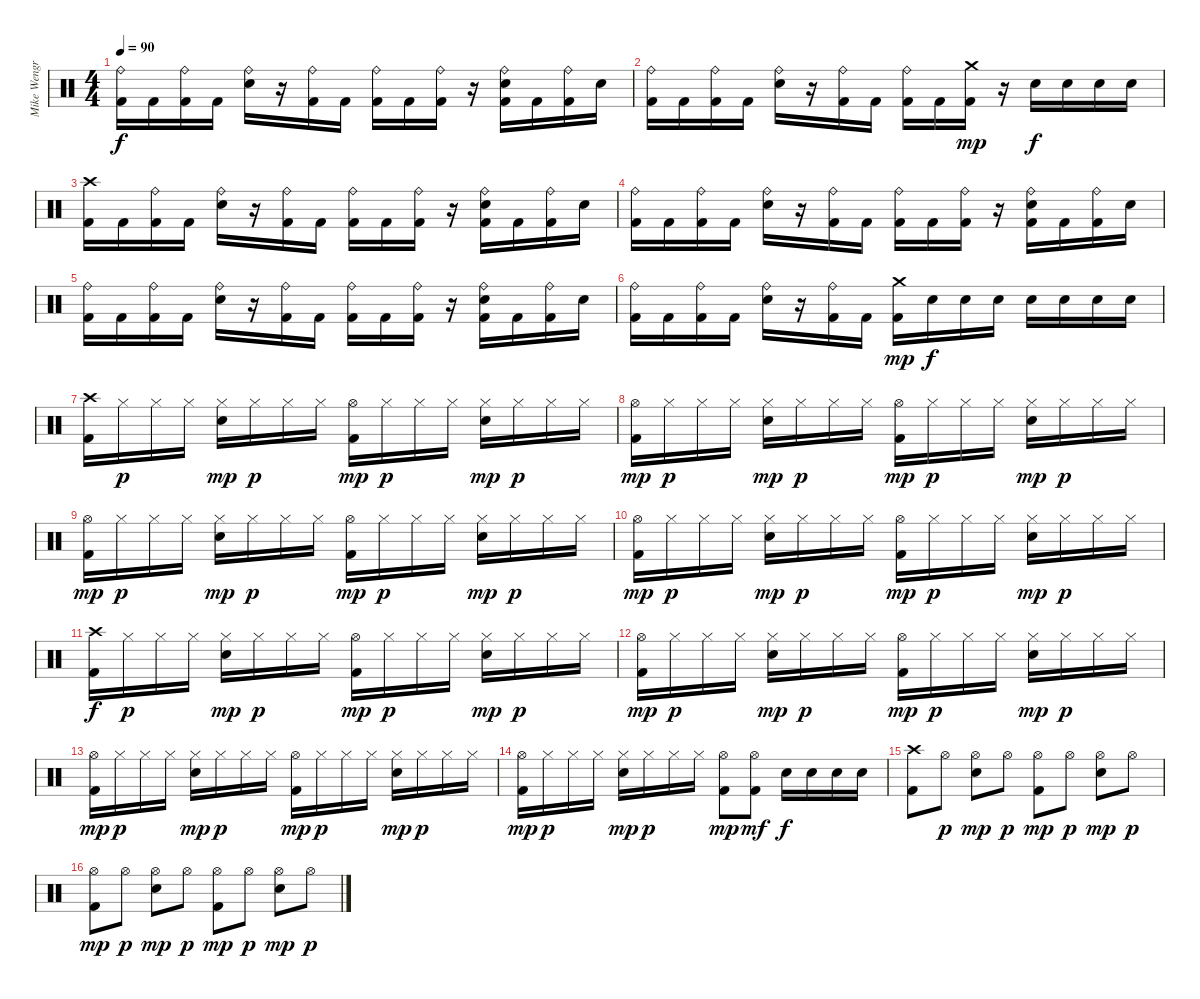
\track ("Mike Wengren - Drums" "Mike Wengr") {instrument percussion}
\staff {score}
\articulation defaults
\ts (4 4)
\tempo 90
\clef neutral
\ks c
("Ride (bell)" "Kick (hit) 2").16{dy f} "Kick (hit) 2".16 ("Ride (bell)" "Kick (hit) 2").16 "Kick (hit) 2".16 ("Ride (bell)" "Electric Snare (hit)").16 r.16 ("Ride (bell)" "Kick (hit) 2").16 "Kick (hit) 2".16 ("Ride (bell)" "Kick (hit) 2").16 "Kick (hit) 2".16 ("Ride (bell)" "Kick (hit) 2").16 r.16 ("Ride (bell)" "Electric Snare (hit)" "Kick (hit) 2").16 "Kick (hit) 2".16 ("Ride (bell)" "Kick (hit) 2").16 "Electric Snare (hit)".16 |
("Ride (bell)" "Kick (hit) 2").16 "Kick (hit) 2".16 ("Ride (bell)" "Kick (hit) 2").16 "Kick (hit) 2".16 ("Ride (bell)" "Electric Snare (hit)").16 r.16 ("Ride (bell)" "Kick (hit) 2").16 "Kick (hit) 2".16 ("Ride (bell)" "Kick (hit) 2").16 "Kick (hit) 2".16 ("Crash medium (hit)" "Kick (hit) 2").16{dy mp} r.16 "Electric Snare (hit)".16{dy f} "Electric Snare (hit)".16 "Electric Snare (hit)".16 "Electric Snare (hit)".16 |
("Crash high (hit)" "Kick (hit) 2").16 "Kick (hit) 2".16 ("Ride (bell)" "Kick (hit) 2").16 "Kick (hit) 2".16 ("Ride (bell)" "Electric Snare (hit)").16 r.16 ("Ride (bell)" "Kick (hit) 2").16 "Kick (hit) 2".16 ("Ride (bell)" "Kick (hit) 2").16 "Kick (hit) 2".16 ("Ride (bell)" "Kick (hit) 2").16 r.16 ("Ride (bell)" "Electric Snare (hit)" "Kick (hit) 2").16 "Kick (hit) 2".16 ("Ride (bell)" "Kick (hit) 2").16 "Electric Snare (hit)".16 |
("Ride (bell)" "Kick (hit) 2").16 "Kick (hit) 2".16 ("Ride (bell)" "Kick (hit) 2").16 "Kick (hit) 2".16 ("Ride (bell)" "Electric Snare (hit)").16 r.16 ("Ride (bell)" "Kick (hit) 2").16 "Kick (hit) 2".16 ("Ride (bell)" "Kick (hit) 2").16 "Kick (hit) 2".16 ("Ride (bell)" "Kick (hit) 2").16 r.16 ("Ride (bell)" "Electric Snare (hit)" "Kick (hit) 2").16 "Kick (hit) 2".16 ("Ride (bell)" "Kick (hit) 2").16 "Electric Snare (hit)".16 |
("Ride (bell)" "Kick (hit) 2").16 "Kick (hit) 2".16 ("Ride (bell)" "Kick (hit) 2").16 "Kick (hit) 2".16 ("Ride (bell)" "Electric Snare (hit)").16 r.16 ("Ride (bell)" "Kick (hit) 2").16 "Kick (hit) 2".16 ("Ride (bell)" "Kick (hit) 2").16 "Kick (hit) 2".16 ("Ride (bell)" "Kick (hit) 2").16 r.16 ("Ride (bell)" "Electric Snare (hit)" "Kick (hit) 2").16 "Kick (hit) 2".16 ("Ride (bell)" "Kick (hit) 2").16 "Electric Snare (hit)".16 |
("Ride (bell)" "Kick (hit) 2").16 "Kick (hit) 2".16 ("Ride (bell)" "Kick (hit) 2").16 "Kick (hit) 2".16 ("Ride (bell)" "Electric Snare (hit)").16 r.16 ("Ride (bell)" "Kick (hit) 2").16 "Kick (hit) 2".16 ("Crash medium (hit)" "Kick (hit) 2").16{dy mp} "Electric Snare (hit)".16{dy f} "Electric Snare (hit)".16 "Electric Snare (hit)".16 "Electric Snare (hit)".16 "Electric Snare (hit)".16 "Electric Snare (hit)".16 "Electric Snare (hit)".16 |
("Crash high (hit)" "Kick (hit) 2").16 "Hi-Hat (closed)".16{dy p} "Hi-Hat (closed)".16 "Hi-Hat (closed)".16 ("Hi-Hat (closed)" "Electric Snare (hit)").16{dy mp} "Hi-Hat (closed)".16{dy p} "Hi-Hat (closed)".16 "Hi-Hat (closed)".16 ("Hi-Hat (open)" "Kick (hit) 2").16{dy mp} "Hi-Hat (closed)".16{dy p} "Hi-Hat (closed)".16 "Hi-Hat (closed)".16 ("Hi-Hat (closed)" "Electric Snare (hit)").16{dy mp} "Hi-Hat (closed)".16{dy p} "Hi-Hat (closed)".16 "Hi-Hat (closed)".16 |
("Hi-Hat (open)" "Kick (hit) 2").16{dy mp} "Hi-Hat (closed)".16{dy p} "Hi-Hat (closed)".16 "Hi-Hat (closed)".16 ("Hi-Hat (closed)" "Electric Snare (hit)").16{dy mp} "Hi-Hat (closed)".16{dy p} "Hi-Hat (closed)".16 "Hi-Hat (closed)".16 ("Hi-Hat (open)" "Kick (hit) 2").16{dy mp} "Hi-Hat (closed)".16{dy p} "Hi-Hat (closed)".16 "Hi-Hat (closed)".16 ("Hi-Hat (closed)" "Electric Snare (hit)").16{dy mp} "Hi-Hat (closed)".16{dy p} "Hi-Hat (closed)".16 "Hi-Hat (closed)".16 |
("Hi-Hat (open)" "Kick (hit) 2").16{dy mp} "Hi-Hat (closed)".16{dy p} "Hi-Hat (closed)".16 "Hi-Hat (closed)".16 ("Hi-Hat (closed)" "Electric Snare (hit)").16{dy mp} "Hi-Hat (closed)".16{dy p} "Hi-Hat (closed)".16 "Hi-Hat (closed)".16 ("Hi-Hat (open)" "Kick (hit) 2").16{dy mp} "Hi-Hat (closed)".16{dy p} "Hi-Hat (closed)".16 "Hi-Hat (closed)".16 ("Hi-Hat (closed)" "Electric Snare (hit)").16{dy mp} "Hi-Hat (closed)".16{dy p} "Hi-Hat (closed)".16 "Hi-Hat (closed)".16 |
("Hi-Hat (open)" "Kick (hit) 2").16{dy mp} "Hi-Hat (closed)".16{dy p} "Hi-Hat (closed)".16 "Hi-Hat (closed)".16 ("Hi-Hat (closed)" "Electric Snare (hit)").16{dy mp} "Hi-Hat (closed)".16{dy p} "Hi-Hat (closed)".16 "Hi-Hat (closed)".16 ("Hi-Hat (open)" "Kick (hit) 2").16{dy mp} "Hi-Hat (closed)".16{dy p} "Hi-Hat (closed)".16 "Hi-Hat (closed)".16 ("Hi-Hat (closed)" "Electric Snare (hit)").16{dy mp} "Hi-Hat (closed)".16{dy p} "Hi-Hat (closed)".16 "Hi-Hat (closed)".16 |
("Crash high (hit)" "Kick (hit) 2").16{dy f} "Hi-Hat (closed)".16{dy p} "Hi-Hat (closed)".16 "Hi-Hat (closed)".16 ("Hi-Hat (closed)" "Electric Snare (hit)").16{dy mp} "Hi-Hat (closed)".16{dy p} "Hi-Hat (closed)".16 "Hi-Hat (closed)".16 ("Hi-Hat (open)" "Kick (hit) 2").16{dy mp} "Hi-Hat (closed)".16{dy p} "Hi-Hat (closed)".16 "Hi-Hat (closed)".16 ("Hi-Hat (closed)" "Electric Snare (hit)").16{dy mp} "Hi-Hat (closed)".16{dy p} "Hi-Hat (closed)".16 "Hi-Hat (closed)".16 |
("Hi-Hat (open)" "Kick (hit) 2").16{dy mp} "Hi-Hat (closed)".16{dy p} "Hi-Hat (closed)".16 "Hi-Hat (closed)".16 ("Hi-Hat (closed)" "Electric Snare (hit)").16{dy mp} "Hi-Hat (closed)".16{dy p} "Hi-Hat (closed)".16 "Hi-Hat (closed)".16 ("Hi-Hat (open)" "Kick (hit) 2").16{dy mp} "Hi-Hat (closed)".16{dy p} "Hi-Hat (closed)".16 "Hi-Hat (closed)".16 ("Hi-Hat (closed)" "Electric Snare (hit)").16{dy mp} "Hi-Hat (closed)".16{dy p} "Hi-Hat (closed)".16 "Hi-Hat (closed)".16 |
("Hi-Hat (open)" "Kick (hit) 2").16{dy mp} "Hi-Hat (closed)".16{dy p} "Hi-Hat (closed)".16 "Hi-Hat (closed)".16 ("Hi-Hat (closed)" "Electric Snare (hit)").16{dy mp} "Hi-Hat (closed)".16{dy p} "Hi-Hat (closed)".16 "Hi-Hat (closed)".16 ("Hi-Hat (open)" "Kick (hit) 2").16{dy mp} "Hi-Hat (closed)".16{dy p} "Hi-Hat (closed)".16 "Hi-Hat (closed)".16 ("Hi-Hat (closed)" "Electric Snare (hit)").16{dy mp} "Hi-Hat (closed)".16{dy p} "Hi-Hat (closed)".16 "Hi-Hat (closed)".16 |
("Hi-Hat (open)" "Kick (hit) 2").16{dy mp} "Hi-Hat (closed)".16{dy p} "Hi-Hat (closed)".16 "Hi-Hat (closed)".16 ("Hi-Hat (closed)" "Electric Snare (hit)").16{dy mp} "Hi-Hat (closed)".16{dy p} "Hi-Hat (closed)".16 "Hi-Hat (closed)".16 ("Hi-Hat (open)" "Kick (hit) 2").8{dy mp} ("Hi-Hat (open)" "Kick (hit) 2").8{dy mf} "Electric Snare (hit)".16{dy f} "Electric Snare (hit)".16 "Electric Snare (hit)".16 "Electric Snare (hit)".16 |
("Crash high (hit)" "Kick (hit) 2").8 "Hi-Hat (open)".8{dy p} ("Hi-Hat (open)" "Electric Snare (hit)").8{dy mp} "Hi-Hat (open)".8{dy p} ("Hi-Hat (open)" "Kick (hit) 2").8{dy mp} "Hi-Hat (open)".8{dy p} ("Hi-Hat (open)" "Electric Snare (hit)").8{dy mp} "Hi-Hat (open)".8{dy p} |
("Hi-Hat (open)" "Kick (hit) 2").8{dy mp} "Hi-Hat (open)".8{dy p} ("Hi-Hat (open)" "Electric Snare (hit)").8{dy mp} "Hi-Hat (open)".8{dy p} ("Hi-Hat (open)" "Kick (hit) 2").8{dy mp} "Hi-Hat (open)".8{dy p} ("Hi-Hat (open)" "Electric Snare (hit)").8{dy mp} "Hi-Hat (open)".8{dy p}
